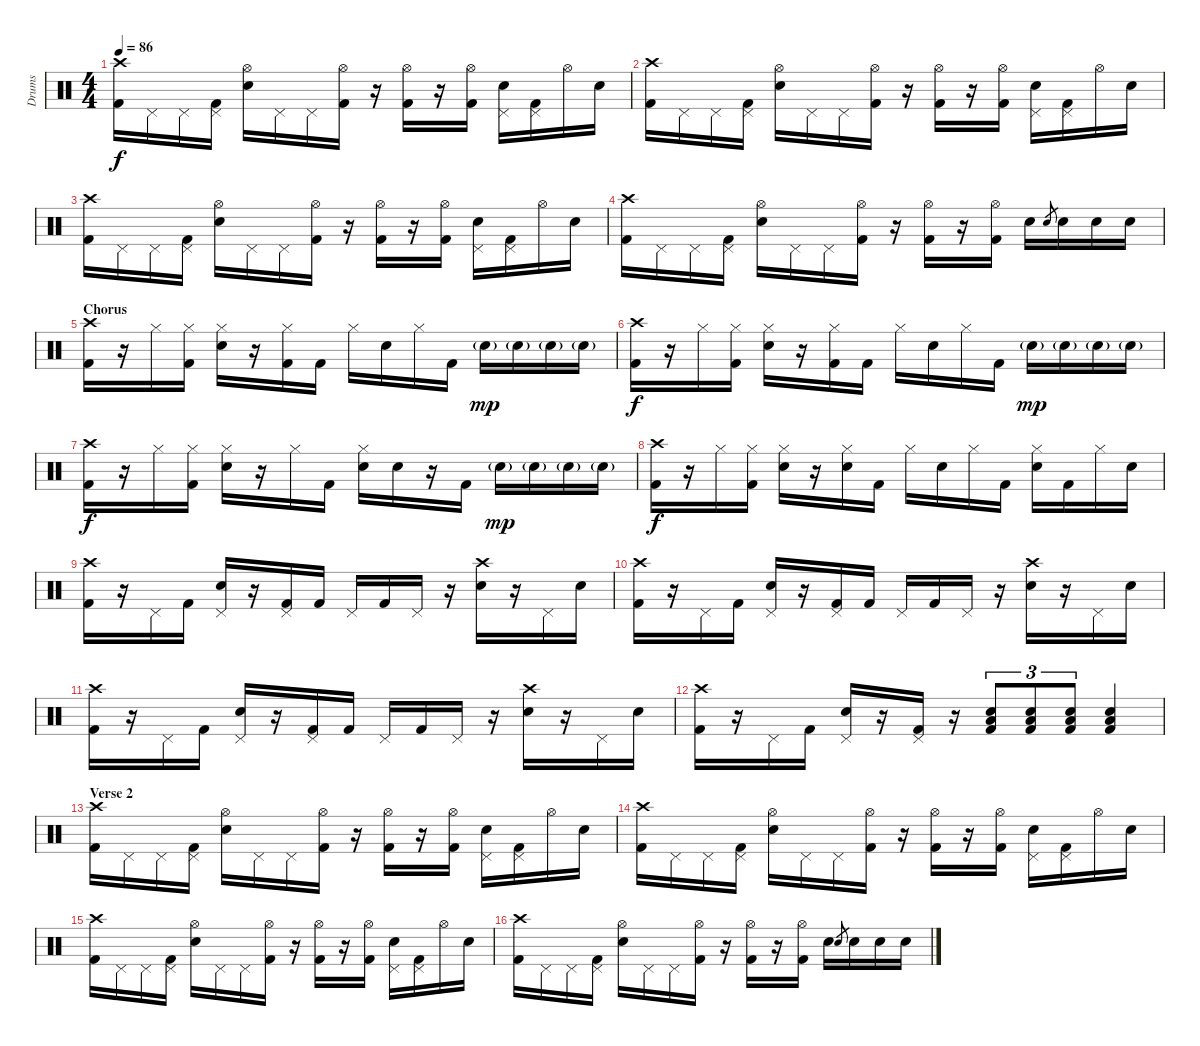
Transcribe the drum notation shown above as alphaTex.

\track ("Drums" "Drums") {instrument percussion}
\staff {score}
\articulation defaults
\ts (4 4)
\tempo 86
\clef neutral
\ks c
("Crash high (hit)" "Kick (hit) 2").16{dy f} "Pedal Hi-Hat (hit)".16 "Pedal Hi-Hat (hit)".16 ("Pedal Hi-Hat (hit)" "Kick (hit) 2").16 ("Hi-Hat (open)" "Snare (hit) 2").16 "Pedal Hi-Hat (hit)".16 "Pedal Hi-Hat (hit)".16 ("Hi-Hat (open)" "Kick (hit) 2").16 r.16 ("Hi-Hat (open)" "Kick (hit) 2").16 r.16 ("Hi-Hat (open)" "Kick (hit) 2").16 ("Pedal Hi-Hat (hit)" "Snare (hit) 2").16 ("Pedal Hi-Hat (hit)" "Kick (hit) 2").16 "Hi-Hat (open)".16 "Snare (hit) 2".16 |
("Crash high (hit)" "Kick (hit) 2").16 "Pedal Hi-Hat (hit)".16 "Pedal Hi-Hat (hit)".16 ("Pedal Hi-Hat (hit)" "Kick (hit) 2").16 ("Hi-Hat (open)" "Snare (hit) 2").16 "Pedal Hi-Hat (hit)".16 "Pedal Hi-Hat (hit)".16 ("Hi-Hat (open)" "Kick (hit) 2").16 r.16 ("Hi-Hat (open)" "Kick (hit) 2").16 r.16 ("Hi-Hat (open)" "Kick (hit) 2").16 ("Pedal Hi-Hat (hit)" "Snare (hit) 2").16 ("Pedal Hi-Hat (hit)" "Kick (hit) 2").16 "Hi-Hat (open)".16 "Snare (hit) 2".16 |
("Crash high (hit)" "Kick (hit) 2").16 "Pedal Hi-Hat (hit)".16 "Pedal Hi-Hat (hit)".16 ("Pedal Hi-Hat (hit)" "Kick (hit) 2").16 ("Hi-Hat (open)" "Snare (hit) 2").16 "Pedal Hi-Hat (hit)".16 "Pedal Hi-Hat (hit)".16 ("Hi-Hat (open)" "Kick (hit) 2").16 r.16 ("Hi-Hat (open)" "Kick (hit) 2").16 r.16 ("Hi-Hat (open)" "Kick (hit) 2").16 ("Pedal Hi-Hat (hit)" "Snare (hit) 2").16 ("Pedal Hi-Hat (hit)" "Kick (hit) 2").16 "Hi-Hat (open)".16 "Snare (hit) 2".16 |
("Crash high (hit)" "Kick (hit) 2").16 "Pedal Hi-Hat (hit)".16 "Pedal Hi-Hat (hit)".16 ("Pedal Hi-Hat (hit)" "Kick (hit) 2").16 ("Hi-Hat (open)" "Snare (hit) 2").16 "Pedal Hi-Hat (hit)".16 "Pedal Hi-Hat (hit)".16 ("Hi-Hat (open)" "Kick (hit) 2").16 r.16 ("Hi-Hat (open)" "Kick (hit) 2").16 r.16 ("Hi-Hat (open)" "Kick (hit) 2").16 "Snare (hit) 2".16 "Snare (hit) 2".8{gr} "Snare (hit) 2".16 "Snare (hit) 2".16 "Snare (hit) 2".16 |
\section ("" "Chorus")
("Crash high (hit)" "Kick (hit) 2").16 r.16 "Hi-Hat (closed)".16 ("Hi-Hat (closed)" "Kick (hit) 2").16 ("Hi-Hat (closed)" "Snare (hit) 2").16 r.16 ("Hi-Hat (closed)" "Kick (hit) 2").16 "Kick (hit) 2".16 "Hi-Hat (closed)".16 "Snare (hit) 2".16 "Hi-Hat (closed)".16 "Kick (hit) 2".16 "Snare (hit) 2"{g}.16{dy mp} "Snare (hit) 2"{g}.16 "Snare (hit) 2"{g}.16 "Snare (hit) 2"{g}.16 |
("Crash high (hit)" "Kick (hit) 2").16{dy f} r.16 "Hi-Hat (closed)".16 ("Hi-Hat (closed)" "Kick (hit) 2").16 ("Hi-Hat (closed)" "Snare (hit) 2").16 r.16 ("Hi-Hat (closed)" "Kick (hit) 2").16 "Kick (hit) 2".16 "Hi-Hat (closed)".16 "Snare (hit) 2".16 "Hi-Hat (closed)".16 "Kick (hit) 2".16 "Snare (hit) 2"{g}.16{dy mp} "Snare (hit) 2"{g}.16 "Snare (hit) 2"{g}.16 "Snare (hit) 2"{g}.16 |
("Crash high (hit)" "Kick (hit) 2").16{dy f} r.16 "Hi-Hat (closed)".16 ("Hi-Hat (closed)" "Kick (hit) 2").16 ("Hi-Hat (closed)" "Snare (hit) 2").16 r.16 "Hi-Hat (closed)".16 "Kick (hit) 2".16 ("Hi-Hat (closed)" "Snare (hit) 2").16 "Snare (hit) 2".16 r.16 "Kick (hit) 2".16 "Snare (hit) 2"{g}.16{dy mp} "Snare (hit) 2"{g}.16 "Snare (hit) 2"{g}.16 "Snare (hit) 2"{g}.16 |
("Crash high (hit)" "Kick (hit) 2").16{dy f} r.16 "Hi-Hat (closed)".16 ("Hi-Hat (closed)" "Kick (hit) 2").16 ("Hi-Hat (closed)" "Snare (hit) 2").16 r.16 ("Hi-Hat (closed)" "Snare (hit) 2").16 "Kick (hit) 2".16 "Hi-Hat (closed)".16 "Snare (hit) 2".16 "Hi-Hat (closed)".16 "Kick (hit) 2".16 ("Hi-Hat (closed)" "Snare (hit) 2").16 "Kick (hit) 2".16 "Hi-Hat (closed)".16 "Snare (hit) 2".16 |
("Crash high (hit)" "Kick (hit) 2").16 r.16 "Pedal Hi-Hat (hit)".16 "Kick (hit) 2".16 ("Pedal Hi-Hat (hit)" "Snare (hit) 2").16 r.16 ("Pedal Hi-Hat (hit)" "Kick (hit) 2").16 "Kick (hit) 2".16 "Pedal Hi-Hat (hit)".16 "Kick (hit) 2".16 "Pedal Hi-Hat (hit)".16 r.16 ("Crash high (hit)" "Snare (hit) 2").16 r.16 "Pedal Hi-Hat (hit)".16 "Snare (hit) 2".16 |
("Crash high (hit)" "Kick (hit) 2").16 r.16 "Pedal Hi-Hat (hit)".16 "Kick (hit) 2".16 ("Pedal Hi-Hat (hit)" "Snare (hit) 2").16 r.16 ("Pedal Hi-Hat (hit)" "Kick (hit) 2").16 "Kick (hit) 2".16 "Pedal Hi-Hat (hit)".16 "Kick (hit) 2".16 "Pedal Hi-Hat (hit)".16 r.16 ("Crash high (hit)" "Snare (hit) 2").16 r.16 "Pedal Hi-Hat (hit)".16 "Snare (hit) 2".16 |
("Crash high (hit)" "Kick (hit) 2").16 r.16 "Pedal Hi-Hat (hit)".16 "Kick (hit) 2".16 ("Pedal Hi-Hat (hit)" "Snare (hit) 2").16 r.16 ("Pedal Hi-Hat (hit)" "Kick (hit) 2").16 "Kick (hit) 2".16 "Pedal Hi-Hat (hit)".16 "Kick (hit) 2".16 "Pedal Hi-Hat (hit)".16 r.16 ("Crash high (hit)" "Snare (hit) 2").16 r.16 "Pedal Hi-Hat (hit)".16 "Snare (hit) 2".16 |
("Crash high (hit)" "Kick (hit) 2").16 r.16 "Pedal Hi-Hat (hit)".16 "Kick (hit) 2".16 ("Pedal Hi-Hat (hit)" "Snare (hit) 2").16 r.16 ("Pedal Hi-Hat (hit)" "Kick (hit) 2").16 r.16 ("Low Floor Tom (hit)" "Snare (hit) 2" "Kick (hit) 2").8{tu (3 2)} ("Low Floor Tom (hit)" "Snare (hit) 2" "Kick (hit) 2").8{tu (3 2)} ("Low Floor Tom (hit)" "Snare (hit) 2" "Kick (hit) 2").8{tu (3 2)} ("Low Floor Tom (hit)" "Snare (hit) 2" "Kick (hit) 2").4 |
\section ("" "Verse 2")
("Crash high (hit)" "Kick (hit) 2").16 "Pedal Hi-Hat (hit)".16 "Pedal Hi-Hat (hit)".16 ("Pedal Hi-Hat (hit)" "Kick (hit) 2").16 ("Hi-Hat (open)" "Snare (hit) 2").16 "Pedal Hi-Hat (hit)".16 "Pedal Hi-Hat (hit)".16 ("Hi-Hat (open)" "Kick (hit) 2").16 r.16 ("Hi-Hat (open)" "Kick (hit) 2").16 r.16 ("Hi-Hat (open)" "Kick (hit) 2").16 ("Pedal Hi-Hat (hit)" "Snare (hit) 2").16 ("Pedal Hi-Hat (hit)" "Kick (hit) 2").16 "Hi-Hat (open)".16 "Snare (hit) 2".16 |
("Crash high (hit)" "Kick (hit) 2").16 "Pedal Hi-Hat (hit)".16 "Pedal Hi-Hat (hit)".16 ("Pedal Hi-Hat (hit)" "Kick (hit) 2").16 ("Hi-Hat (open)" "Snare (hit) 2").16 "Pedal Hi-Hat (hit)".16 "Pedal Hi-Hat (hit)".16 ("Hi-Hat (open)" "Kick (hit) 2").16 r.16 ("Hi-Hat (open)" "Kick (hit) 2").16 r.16 ("Hi-Hat (open)" "Kick (hit) 2").16 ("Pedal Hi-Hat (hit)" "Snare (hit) 2").16 ("Pedal Hi-Hat (hit)" "Kick (hit) 2").16 "Hi-Hat (open)".16 "Snare (hit) 2".16 |
("Crash high (hit)" "Kick (hit) 2").16 "Pedal Hi-Hat (hit)".16 "Pedal Hi-Hat (hit)".16 ("Pedal Hi-Hat (hit)" "Kick (hit) 2").16 ("Hi-Hat (open)" "Snare (hit) 2").16 "Pedal Hi-Hat (hit)".16 "Pedal Hi-Hat (hit)".16 ("Hi-Hat (open)" "Kick (hit) 2").16 r.16 ("Hi-Hat (open)" "Kick (hit) 2").16 r.16 ("Hi-Hat (open)" "Kick (hit) 2").16 ("Pedal Hi-Hat (hit)" "Snare (hit) 2").16 ("Pedal Hi-Hat (hit)" "Kick (hit) 2").16 "Hi-Hat (open)".16 "Snare (hit) 2".16 |
("Crash high (hit)" "Kick (hit) 2").16 "Pedal Hi-Hat (hit)".16 "Pedal Hi-Hat (hit)".16 ("Pedal Hi-Hat (hit)" "Kick (hit) 2").16 ("Hi-Hat (open)" "Snare (hit) 2").16 "Pedal Hi-Hat (hit)".16 "Pedal Hi-Hat (hit)".16 ("Hi-Hat (open)" "Kick (hit) 2").16 r.16 ("Hi-Hat (open)" "Kick (hit) 2").16 r.16 ("Hi-Hat (open)" "Kick (hit) 2").16 "Snare (hit) 2".16 "Snare (hit) 2".8{gr} "Snare (hit) 2".16 "Snare (hit) 2".16 "Snare (hit) 2".16
